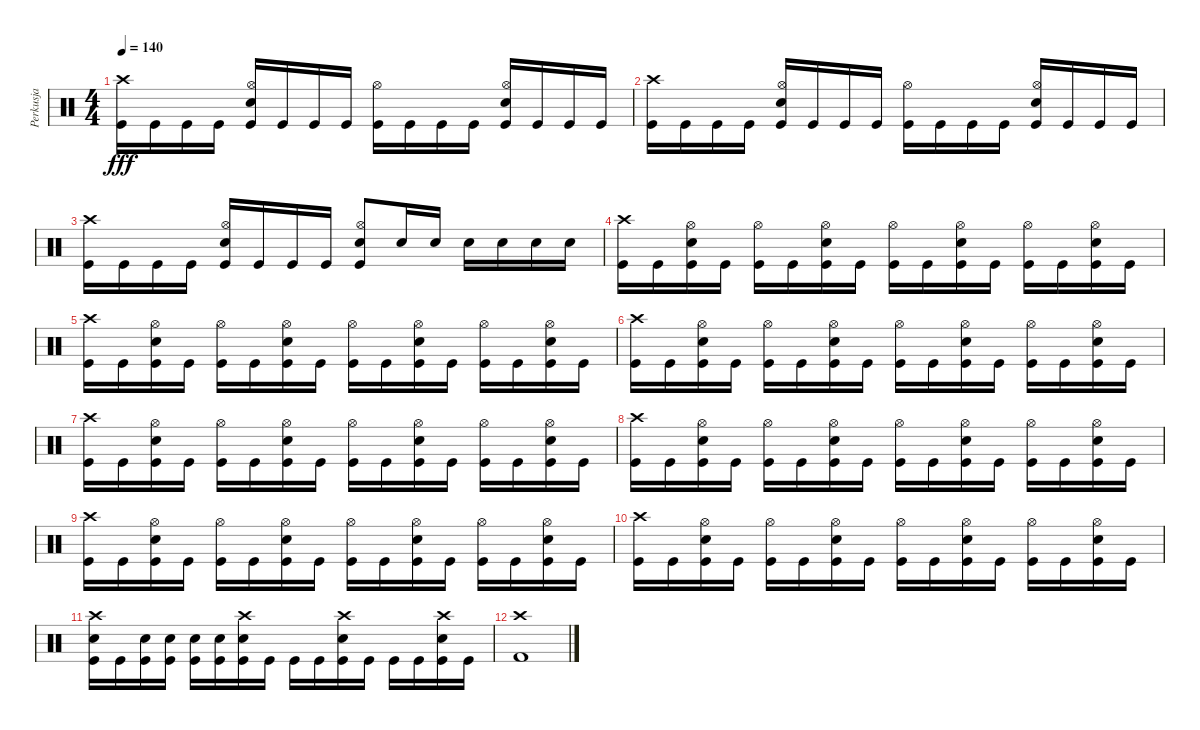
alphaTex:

\track ("Perkusja" "Perkusja") {instrument percussion}
\staff {score}
\articulation defaults
\ts (4 4)
\tempo 140
\clef neutral
\ks c
("Crash high (hit)" "Kick (hit)").16{dy fff} "Kick (hit)".16 "Kick (hit)".16 "Kick (hit)".16 ("Hi-Hat (open)" "Electric Snare (hit)" "Kick (hit)").16 "Kick (hit)".16 "Kick (hit)".16 "Kick (hit)".16 ("Hi-Hat (open)" "Kick (hit)").16 "Kick (hit)".16 "Kick (hit)".16 "Kick (hit)".16 ("Hi-Hat (open)" "Electric Snare (hit)" "Kick (hit)").16 "Kick (hit)".16 "Kick (hit)".16 "Kick (hit)".16 |
("Crash high (hit)" "Kick (hit)").16 "Kick (hit)".16 "Kick (hit)".16 "Kick (hit)".16 ("Hi-Hat (open)" "Electric Snare (hit)" "Kick (hit)").16 "Kick (hit)".16 "Kick (hit)".16 "Kick (hit)".16 ("Hi-Hat (open)" "Kick (hit)").16 "Kick (hit)".16 "Kick (hit)".16 "Kick (hit)".16 ("Hi-Hat (open)" "Electric Snare (hit)" "Kick (hit)").16 "Kick (hit)".16 "Kick (hit)".16 "Kick (hit)".16 |
("Crash high (hit)" "Kick (hit)").16 "Kick (hit)".16 "Kick (hit)".16 "Kick (hit)".16 ("Hi-Hat (open)" "Electric Snare (hit)" "Kick (hit)").16 "Kick (hit)".16 "Kick (hit)".16 "Kick (hit)".16 ("Hi-Hat (open)" "Electric Snare (hit)" "Kick (hit)").8 "Electric Snare (hit)".16 "Electric Snare (hit)".16 "Electric Snare (hit)".16 "Electric Snare (hit)".16 "Electric Snare (hit)".16 "Electric Snare (hit)".16 |
("Crash high (hit)" "Kick (hit)").16 "Kick (hit)".16 ("Hi-Hat (open)" "Electric Snare (hit)" "Kick (hit)").16 "Kick (hit)".16 ("Hi-Hat (open)" "Kick (hit)").16 "Kick (hit)".16 ("Hi-Hat (open)" "Electric Snare (hit)" "Kick (hit)").16 "Kick (hit)".16 ("Hi-Hat (open)" "Kick (hit)").16 "Kick (hit)".16 ("Hi-Hat (open)" "Electric Snare (hit)" "Kick (hit)").16 "Kick (hit)".16 ("Hi-Hat (open)" "Kick (hit)").16 "Kick (hit)".16 ("Hi-Hat (open)" "Electric Snare (hit)" "Kick (hit)").16 "Kick (hit)".16 |
("Crash high (hit)" "Kick (hit)").16 "Kick (hit)".16 ("Hi-Hat (open)" "Electric Snare (hit)" "Kick (hit)").16 "Kick (hit)".16 ("Hi-Hat (open)" "Kick (hit)").16 "Kick (hit)".16 ("Hi-Hat (open)" "Electric Snare (hit)" "Kick (hit)").16 "Kick (hit)".16 ("Hi-Hat (open)" "Kick (hit)").16 "Kick (hit)".16 ("Hi-Hat (open)" "Electric Snare (hit)" "Kick (hit)").16 "Kick (hit)".16 ("Hi-Hat (open)" "Kick (hit)").16 "Kick (hit)".16 ("Hi-Hat (open)" "Electric Snare (hit)" "Kick (hit)").16 "Kick (hit)".16 |
("Crash high (hit)" "Kick (hit)").16 "Kick (hit)".16 ("Hi-Hat (open)" "Electric Snare (hit)" "Kick (hit)").16 "Kick (hit)".16 ("Hi-Hat (open)" "Kick (hit)").16 "Kick (hit)".16 ("Hi-Hat (open)" "Electric Snare (hit)" "Kick (hit)").16 "Kick (hit)".16 ("Hi-Hat (open)" "Kick (hit)").16 "Kick (hit)".16 ("Hi-Hat (open)" "Electric Snare (hit)" "Kick (hit)").16 "Kick (hit)".16 ("Hi-Hat (open)" "Kick (hit)").16 "Kick (hit)".16 ("Hi-Hat (open)" "Electric Snare (hit)" "Kick (hit)").16 "Kick (hit)".16 |
("Crash high (hit)" "Kick (hit)").16 "Kick (hit)".16 ("Hi-Hat (open)" "Electric Snare (hit)" "Kick (hit)").16 "Kick (hit)".16 ("Hi-Hat (open)" "Kick (hit)").16 "Kick (hit)".16 ("Hi-Hat (open)" "Electric Snare (hit)" "Kick (hit)").16 "Kick (hit)".16 ("Hi-Hat (open)" "Kick (hit)").16 "Kick (hit)".16 ("Hi-Hat (open)" "Electric Snare (hit)" "Kick (hit)").16 "Kick (hit)".16 ("Hi-Hat (open)" "Kick (hit)").16 "Kick (hit)".16 ("Hi-Hat (open)" "Electric Snare (hit)" "Kick (hit)").16 "Kick (hit)".16 |
("Crash high (hit)" "Kick (hit)").16 "Kick (hit)".16 ("Hi-Hat (open)" "Electric Snare (hit)" "Kick (hit)").16 "Kick (hit)".16 ("Hi-Hat (open)" "Kick (hit)").16 "Kick (hit)".16 ("Hi-Hat (open)" "Electric Snare (hit)" "Kick (hit)").16 "Kick (hit)".16 ("Hi-Hat (open)" "Kick (hit)").16 "Kick (hit)".16 ("Hi-Hat (open)" "Electric Snare (hit)" "Kick (hit)").16 "Kick (hit)".16 ("Hi-Hat (open)" "Kick (hit)").16 "Kick (hit)".16 ("Hi-Hat (open)" "Electric Snare (hit)" "Kick (hit)").16 "Kick (hit)".16 |
("Crash high (hit)" "Kick (hit)").16 "Kick (hit)".16 ("Hi-Hat (open)" "Electric Snare (hit)" "Kick (hit)").16 "Kick (hit)".16 ("Hi-Hat (open)" "Kick (hit)").16 "Kick (hit)".16 ("Hi-Hat (open)" "Electric Snare (hit)" "Kick (hit)").16 "Kick (hit)".16 ("Hi-Hat (open)" "Kick (hit)").16 "Kick (hit)".16 ("Hi-Hat (open)" "Electric Snare (hit)" "Kick (hit)").16 "Kick (hit)".16 ("Hi-Hat (open)" "Kick (hit)").16 "Kick (hit)".16 ("Hi-Hat (open)" "Electric Snare (hit)" "Kick (hit)").16 "Kick (hit)".16 |
("Crash high (hit)" "Kick (hit)").16 "Kick (hit)".16 ("Hi-Hat (open)" "Electric Snare (hit)" "Kick (hit)").16 "Kick (hit)".16 ("Hi-Hat (open)" "Kick (hit)").16 "Kick (hit)".16 ("Hi-Hat (open)" "Electric Snare (hit)" "Kick (hit)").16 "Kick (hit)".16 ("Hi-Hat (open)" "Kick (hit)").16 "Kick (hit)".16 ("Hi-Hat (open)" "Electric Snare (hit)" "Kick (hit)").16 "Kick (hit)".16 ("Hi-Hat (open)" "Kick (hit)").16 "Kick (hit)".16 ("Hi-Hat (open)" "Electric Snare (hit)" "Kick (hit)").16 "Kick (hit)".16 |
("Crash high (hit)" "Electric Snare (hit)" "Kick (hit)").16 "Kick (hit)".16 ("Electric Snare (hit)" "Kick (hit)").16 ("Electric Snare (hit)" "Kick (hit)").16 ("Electric Snare (hit)" "Kick (hit)").16 ("Electric Snare (hit)" "Kick (hit)").16 ("Crash high (hit)" "Electric Snare (hit)" "Kick (hit)").16 "Kick (hit)".16 "Kick (hit)".16 "Kick (hit)".16 ("Crash high (hit)" "Electric Snare (hit)" "Kick (hit)").16 "Kick (hit)".16 "Kick (hit)".16 "Kick (hit)".16 ("Crash high (hit)" "Electric Snare (hit)" "Kick (hit)").16 "Kick (hit)".16 |
("Crash high (hit)" "Kick (hit) 2").1
